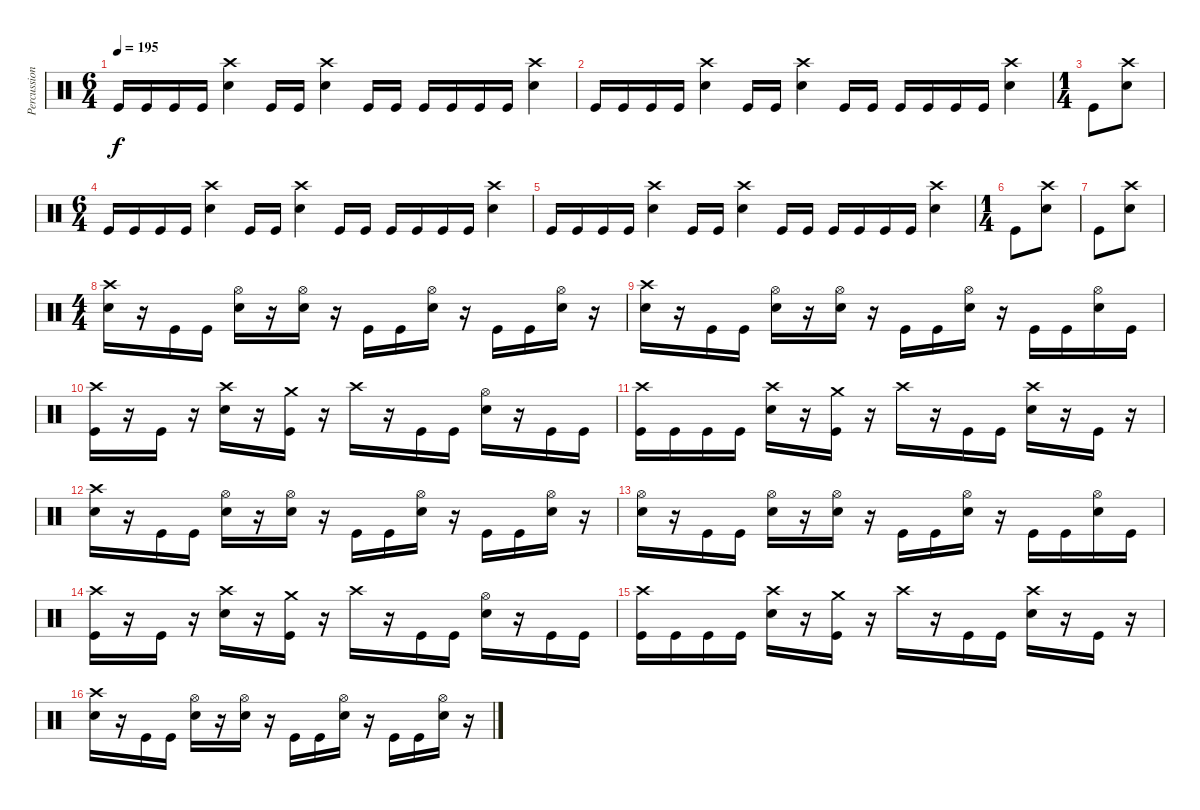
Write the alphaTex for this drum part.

\track ("Percussion" "Percussion") {instrument percussion}
\staff {score}
\articulation defaults
\ts (6 4)
\tempo 195
\clef neutral
\ks c "Kick (hit)".16{dy f} "Kick (hit)".16 "Kick (hit)".16 "Kick (hit)".16
("Crash high (hit)" "Electric Snare (hit)").4 "Kick (hit)".16 "Kick (hit)".16 ("Crash high (hit)" "Electric Snare (hit)").4 "Kick (hit)".16 "Kick (hit)".16 "Kick (hit)".16 "Kick (hit)".16 "Kick (hit)".16 "Kick (hit)".16 ("Crash high (hit)" "Electric Snare (hit)").4 |
"Kick (hit)".16 "Kick (hit)".16 "Kick (hit)".16 "Kick (hit)".16 ("Crash high (hit)" "Electric Snare (hit)").4 "Kick (hit)".16 "Kick (hit)".16 ("Crash high (hit)" "Electric Snare (hit)").4 "Kick (hit)".16 "Kick (hit)".16 "Kick (hit)".16 "Kick (hit)".16 "Kick (hit)".16 "Kick (hit)".16 ("Crash high (hit)" "Electric Snare (hit)").4 |
\ts (1 4)
"Kick (hit)".8 ("Crash high (hit)" "Electric Snare (hit)").8 |
\ts (6 4)
"Kick (hit)".16 "Kick (hit)".16 "Kick (hit)".16 "Kick (hit)".16 ("Crash high (hit)" "Electric Snare (hit)").4 "Kick (hit)".16 "Kick (hit)".16 ("Crash high (hit)" "Electric Snare (hit)").4 "Kick (hit)".16 "Kick (hit)".16 "Kick (hit)".16 "Kick (hit)".16 "Kick (hit)".16 "Kick (hit)".16 ("Crash high (hit)" "Electric Snare (hit)").4 |
"Kick (hit)".16 "Kick (hit)".16 "Kick (hit)".16 "Kick (hit)".16 ("Crash high (hit)" "Electric Snare (hit)").4 "Kick (hit)".16 "Kick (hit)".16 ("Crash high (hit)" "Electric Snare (hit)").4 "Kick (hit)".16 "Kick (hit)".16 "Kick (hit)".16 "Kick (hit)".16 "Kick (hit)".16 "Kick (hit)".16 ("Crash high (hit)" "Electric Snare (hit)").4 |
\ts (1 4)
"Kick (hit)".8 ("Crash high (hit)" "Electric Snare (hit)").8 |
"Kick (hit)".8 ("Crash high (hit)" "Electric Snare (hit)").8 |
\ts (4 4)
("Crash high (hit)" "Electric Snare (hit)").16 r.16 "Kick (hit)".16 "Kick (hit)".16 ("Hi-Hat (open)" "Electric Snare (hit)").16 r.16 ("Hi-Hat (open)" "Electric Snare (hit)").16 r.16 "Kick (hit)".16 "Kick (hit)".16 ("Hi-Hat (open)" "Electric Snare (hit)").16 r.16 "Kick (hit)".16 "Kick (hit)".16 ("Hi-Hat (open)" "Electric Snare (hit)").16 r.16 |
("Crash high (hit)" "Electric Snare (hit)").16 r.16 "Kick (hit)".16 "Kick (hit)".16 ("Hi-Hat (open)" "Electric Snare (hit)").16 r.16 ("Hi-Hat (open)" "Electric Snare (hit)").16 r.16 "Kick (hit)".16 "Kick (hit)".16 ("Hi-Hat (open)" "Electric Snare (hit)").16 r.16 "Kick (hit)".16 "Kick (hit)".16 ("Hi-Hat (open)" "Electric Snare (hit)").16 "Kick (hit)".16 |
("Crash high (hit)" "Kick (hit)").16 r.16 "Kick (hit)".16 r.16 ("Crash high (hit)" "Electric Snare (hit)").16 r.16 ("Crash medium (hit)" "Kick (hit)").16 r.16 "Crash high (hit)".16 r.16 "Kick (hit)".16 "Kick (hit)".16 ("Hi-Hat (open)" "Electric Snare (hit)").16 r.16 "Kick (hit)".16 "Kick (hit)".16 |
("Crash high (hit)" "Kick (hit)").16 "Kick (hit)".16 "Kick (hit)".16 "Kick (hit)".16 ("Crash high (hit)" "Electric Snare (hit)").16 r.16 ("Crash medium (hit)" "Kick (hit)").16 r.16 "Crash high (hit)".16 r.16 "Kick (hit)".16 "Kick (hit)".16 ("Crash high (hit)" "Electric Snare (hit)").16 r.16 "Kick (hit)".16 r.16 |
("Crash high (hit)" "Electric Snare (hit)").16 r.16 "Kick (hit)".16 "Kick (hit)".16 ("Hi-Hat (open)" "Electric Snare (hit)").16 r.16 ("Hi-Hat (open)" "Electric Snare (hit)").16 r.16 "Kick (hit)".16 "Kick (hit)".16 ("Hi-Hat (open)" "Electric Snare (hit)").16 r.16 "Kick (hit)".16 "Kick (hit)".16 ("Hi-Hat (open)" "Electric Snare (hit)").16 r.16 |
("Hi-Hat (open)" "Electric Snare (hit)").16 r.16 "Kick (hit)".16 "Kick (hit)".16 ("Hi-Hat (open)" "Electric Snare (hit)").16 r.16 ("Hi-Hat (open)" "Electric Snare (hit)").16 r.16 "Kick (hit)".16 "Kick (hit)".16 ("Hi-Hat (open)" "Electric Snare (hit)").16 r.16 "Kick (hit)".16 "Kick (hit)".16 ("Hi-Hat (open)" "Electric Snare (hit)").16 "Kick (hit)".16 |
("Crash high (hit)" "Kick (hit)").16 r.16 "Kick (hit)".16 r.16 ("Crash high (hit)" "Electric Snare (hit)").16 r.16 ("Crash medium (hit)" "Kick (hit)").16 r.16 "Crash high (hit)".16 r.16 "Kick (hit)".16 "Kick (hit)".16 ("Hi-Hat (open)" "Electric Snare (hit)").16 r.16 "Kick (hit)".16 "Kick (hit)".16 |
("Crash high (hit)" "Kick (hit)").16 "Kick (hit)".16 "Kick (hit)".16 "Kick (hit)".16 ("Crash high (hit)" "Electric Snare (hit)").16 r.16 ("Crash medium (hit)" "Kick (hit)").16 r.16 "Crash high (hit)".16 r.16 "Kick (hit)".16 "Kick (hit)".16 ("Crash high (hit)" "Electric Snare (hit)").16 r.16 "Kick (hit)".16 r.16 |
("Crash high (hit)" "Electric Snare (hit)").16 r.16 "Kick (hit)".16 "Kick (hit)".16 ("Hi-Hat (open)" "Electric Snare (hit)").16 r.16 ("Hi-Hat (open)" "Electric Snare (hit)").16 r.16 "Kick (hit)".16 "Kick (hit)".16 ("Hi-Hat (open)" "Electric Snare (hit)").16 r.16 "Kick (hit)".16 "Kick (hit)".16 ("Hi-Hat (open)" "Electric Snare (hit)").16{beam merge} r.16
